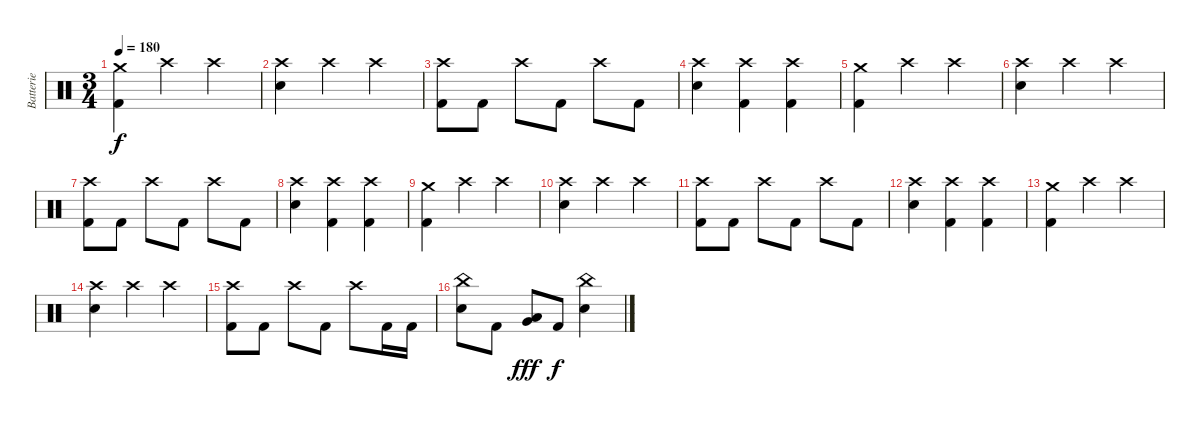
\track ("Batterie" "Batterie") {instrument percussion}
\staff {score}
\articulation defaults
\ts (3 4)
\tempo 180
\clef neutral
\ks c
("Crash medium (hit)" "Kick (hit) 2").4{dy f} "Crash high (hit)".4 "Crash high (hit)".4 |
("Crash high (hit)" "Electric Snare (hit)").4 "Crash high (hit)".4 "Crash high (hit)".4 |
("Crash high (hit)" "Kick (hit) 2").8 "Kick (hit) 2".8 "Crash high (hit)".8 "Kick (hit) 2".8 "Crash high (hit)".8 "Kick (hit) 2".8 |
("Crash high (hit)" "Electric Snare (hit)").4 ("Crash high (hit)" "Kick (hit) 2").4 ("Crash high (hit)" "Kick (hit) 2").4 |
("Crash medium (hit)" "Kick (hit) 2").4 "Crash high (hit)".4 "Crash high (hit)".4 |
("Crash high (hit)" "Electric Snare (hit)").4 "Crash high (hit)".4 "Crash high (hit)".4 |
("Crash high (hit)" "Kick (hit) 2").8 "Kick (hit) 2".8 "Crash high (hit)".8 "Kick (hit) 2".8 "Crash high (hit)".8 "Kick (hit) 2".8 |
("Crash high (hit)" "Electric Snare (hit)").4 ("Crash high (hit)" "Kick (hit) 2").4 ("Crash high (hit)" "Kick (hit) 2").4 |
("Crash medium (hit)" "Kick (hit) 2").4 "Crash high (hit)".4 "Crash high (hit)".4 |
("Crash high (hit)" "Electric Snare (hit)").4 "Crash high (hit)".4 "Crash high (hit)".4 |
("Crash high (hit)" "Kick (hit) 2").8 "Kick (hit) 2".8 "Crash high (hit)".8 "Kick (hit) 2".8 "Crash high (hit)".8 "Kick (hit) 2".8 |
("Crash high (hit)" "Electric Snare (hit)").4 ("Crash high (hit)" "Kick (hit) 2").4 ("Crash high (hit)" "Kick (hit) 2").4 |
("Crash medium (hit)" "Kick (hit) 2").4 "Crash high (hit)".4 "Crash high (hit)".4 |
("Crash high (hit)" "Electric Snare (hit)").4 "Crash high (hit)".4 "Crash high (hit)".4 |
("Crash high (hit)" "Kick (hit) 2").8 "Kick (hit) 2".8 "Crash high (hit)".8 "Kick (hit) 2".8 "Crash high (hit)".8 "Kick (hit) 2".16 "Kick (hit) 2".16 |
("China (hit)" "Electric Snare (hit)").8 "Kick (hit) 2".8 ("Very Low Tom (hit)" "Low Floor Tom (hit)").8{dy fff} "Kick (hit) 2".8{dy f} ("China (hit)" "Electric Snare (hit)").4
